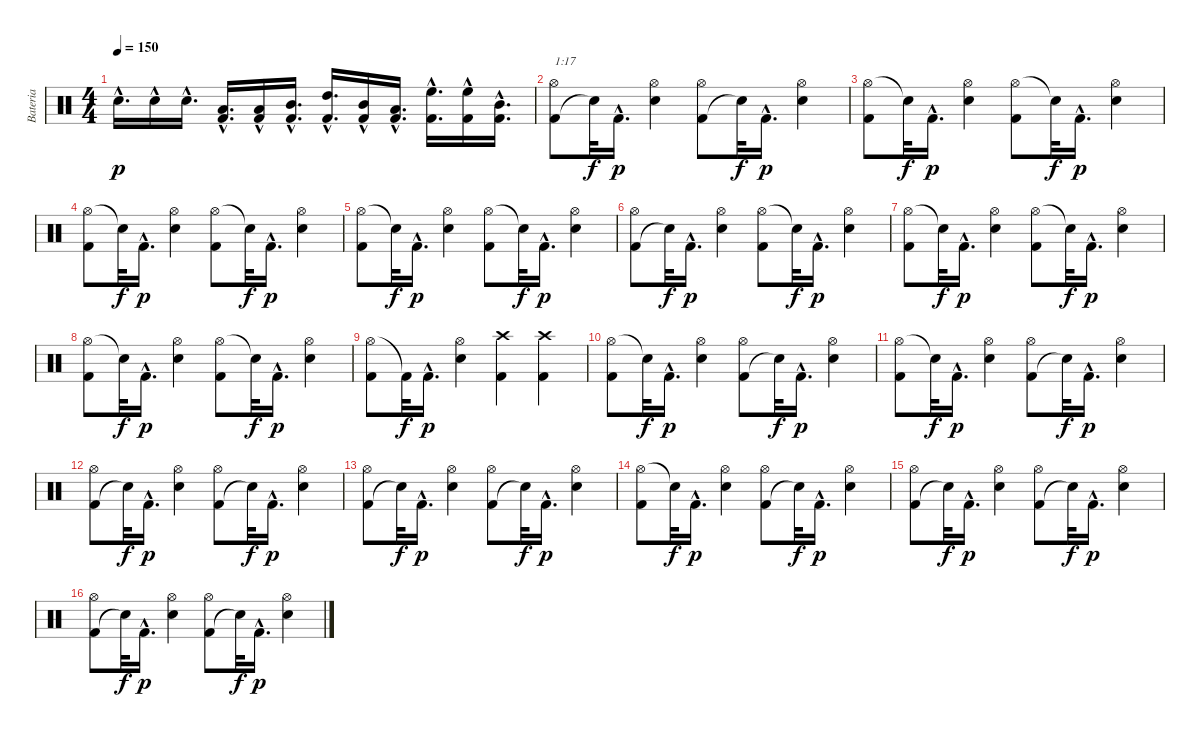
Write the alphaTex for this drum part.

\track ("Bateria" "Bateria") {instrument percussion}
\staff {score}
\articulation defaults
\ts (4 4)
\tempo 150
\clef neutral
\ks c "Snare (hit) 2"{hac}.16{d dy p} "Snare (hit) 2"{hac}.16 "Snare (hit) 2"{hac}.16{d}
("Low Tom (hit)"{hac} "Kick (hit) 2"{hac}).16{d} ("Low Tom (hit)"{hac} "Kick (hit) 2"{hac}).16 ("Kick (hit) 2"{hac} "Mid Tom (hit)"{hac}).16{d} ("Kick (hit) 2"{hac} "High Tom (hit)"{hac}).16{d} ("Kick (hit) 2"{hac} "Mid Tom (hit)"{hac}).16 ("Low Tom (hit)"{hac} "Kick (hit) 2"{hac}).16{d} ("High Floor Tom (hit)"{hac} "Kick (hit) 2"{hac}).16{d} ("Kick (hit) 2"{hac} "High Floor Tom (hit)"{hac}).16 ("Kick (hit) 2"{hac} "Mid Tom (hit)"{hac}).16{d} |
("Kick (hit) 2" "Hi-Hat (open)").8{txt "1:17"} "Snare (hit)"{t}.32{dy f} "Kick (hit) 2"{hac}.16{d dy p} ("Snare (hit) 2" "Hi-Hat (open)").4 ("Kick (hit) 2" "Hi-Hat (open)").8 "Snare (hit)"{t}.32{dy f} "Kick (hit) 2"{hac}.16{d dy p} ("Snare (hit) 2" "Hi-Hat (open)").4 |
("Hi-Hat (open)" "Kick (hit) 2").8 "Snare (hit)"{t}.32{dy f} "Kick (hit) 2"{hac}.16{d dy p} ("Hi-Hat (open)" "Snare (hit) 2").4 ("Hi-Hat (open)" "Kick (hit) 2").8 "Snare (hit)"{t}.32{dy f} "Kick (hit) 2"{hac}.16{d dy p} ("Hi-Hat (open)" "Snare (hit) 2").4 |
("Hi-Hat (open)" "Kick (hit) 2").8 "Snare (hit)"{t}.32{dy f} "Kick (hit) 2"{hac}.16{d dy p} ("Hi-Hat (open)" "Snare (hit) 2").4 ("Hi-Hat (open)" "Kick (hit) 2").8 "Snare (hit)"{t}.32{dy f} "Kick (hit) 2"{hac}.16{d dy p} ("Snare (hit) 2" "Hi-Hat (open)").4 |
("Hi-Hat (open)" "Kick (hit) 2").8 "Snare (hit)"{t}.32{dy f} "Kick (hit) 2"{hac}.16{d dy p} ("Snare (hit) 2" "Hi-Hat (open)").4 ("Hi-Hat (open)" "Kick (hit) 2").8 "Snare (hit)"{t}.32{dy f} "Kick (hit) 2"{hac}.16{d dy p} ("Snare (hit) 2" "Hi-Hat (open)").4 |
("Kick (hit) 2" "Hi-Hat (open)").8 "Snare (hit)"{t}.32{dy f} "Kick (hit) 2"{hac}.16{d dy p} ("Snare (hit) 2" "Hi-Hat (open)").4 ("Hi-Hat (open)" "Kick (hit) 2").8 "Snare (hit)"{t}.32{dy f} "Kick (hit) 2"{hac}.16{d dy p} ("Snare (hit) 2" "Hi-Hat (open)").4 |
("Hi-Hat (open)" "Kick (hit) 2").8 "Snare (hit)"{t}.32{dy f} "Kick (hit) 2"{hac}.16{d dy p} ("Snare (hit) 2" "Hi-Hat (open)").4 ("Hi-Hat (open)" "Kick (hit) 2").8 "Snare (hit)"{t}.32{dy f} "Kick (hit) 2"{hac}.16{d dy p} ("Snare (hit) 2" "Hi-Hat (open)").4 |
("Hi-Hat (open)" "Kick (hit) 2").8 "Snare (hit)"{t}.32{dy f} "Kick (hit) 2"{hac}.16{d dy p} ("Snare (hit) 2" "Hi-Hat (open)").4 ("Hi-Hat (open)" "Kick (hit) 2").8 "Snare (hit)"{t}.32{dy f} "Kick (hit) 2"{hac}.16{d dy p} ("Snare (hit) 2" "Hi-Hat (open)").4 |
("Hi-Hat (open)" "Kick (hit) 2").8 "Kick (hit) 2"{t}.32{dy f} "Kick (hit) 2"{hac}.16{d dy p} ("Hi-Hat (open)" "Snare (hit) 2").4 ("Kick (hit) 2" "Crash high (hit)").4 ("Kick (hit) 2" "Crash high (hit)").4 |
("Hi-Hat (open)" "Kick (hit) 2").8 "Snare (hit)"{t}.32{dy f} "Kick (hit) 2"{hac}.16{d dy p} ("Hi-Hat (open)" "Snare (hit) 2").4 ("Kick (hit) 2" "Hi-Hat (open)").8 "Snare (hit)"{t}.32{dy f} "Kick (hit) 2"{hac}.16{d dy p} ("Hi-Hat (open)" "Snare (hit) 2").4 |
("Hi-Hat (open)" "Kick (hit) 2").8 "Snare (hit)"{t}.32{dy f} "Kick (hit) 2"{hac}.16{d dy p} ("Snare (hit) 2" "Hi-Hat (open)").4 ("Kick (hit) 2" "Hi-Hat (open)").8 "Snare (hit)"{t}.32{dy f} "Kick (hit) 2"{hac}.16{d dy p} ("Snare (hit) 2" "Hi-Hat (open)").4 |
("Kick (hit) 2" "Hi-Hat (open)").8 "Snare (hit)"{t}.32{dy f} "Kick (hit) 2"{hac}.16{d dy p} ("Snare (hit) 2" "Hi-Hat (open)").4 ("Kick (hit) 2" "Hi-Hat (open)").8 "Snare (hit)"{t}.32{dy f} "Kick (hit) 2"{hac}.16{d dy p} ("Snare (hit) 2" "Hi-Hat (open)").4 |
("Kick (hit) 2" "Hi-Hat (open)").8 "Snare (hit)"{t}.32{dy f} "Kick (hit) 2"{hac}.16{d dy p} ("Snare (hit) 2" "Hi-Hat (open)").4 ("Kick (hit) 2" "Hi-Hat (open)").8 "Snare (hit)"{t}.32{dy f} "Kick (hit) 2"{hac}.16{d dy p} ("Snare (hit) 2" "Hi-Hat (open)").4 |
("Hi-Hat (open)" "Kick (hit) 2").8 "Snare (hit)"{t}.32{dy f} "Kick (hit) 2"{hac}.16{d dy p} ("Snare (hit) 2" "Hi-Hat (open)").4 ("Kick (hit) 2" "Hi-Hat (open)").8 "Snare (hit)"{t}.32{dy f} "Kick (hit) 2"{hac}.16{d dy p} ("Snare (hit) 2" "Hi-Hat (open)").4 |
("Kick (hit) 2" "Hi-Hat (open)").8 "Snare (hit)"{t}.32{dy f} "Kick (hit) 2"{hac}.16{d dy p} ("Snare (hit) 2" "Hi-Hat (open)").4 ("Kick (hit) 2" "Hi-Hat (open)").8 "Snare (hit)"{t}.32{dy f} "Kick (hit) 2"{hac}.16{d dy p} ("Snare (hit) 2" "Hi-Hat (open)").4 |
("Kick (hit) 2" "Hi-Hat (open)").8 "Snare (hit)"{t}.32{dy f} "Kick (hit) 2"{hac}.16{d dy p} ("Snare (hit) 2" "Hi-Hat (open)").4 ("Kick (hit) 2" "Hi-Hat (open)").8 "Snare (hit)"{t}.32{dy f} "Kick (hit) 2"{hac}.16{d dy p} ("Snare (hit) 2" "Hi-Hat (open)").4
